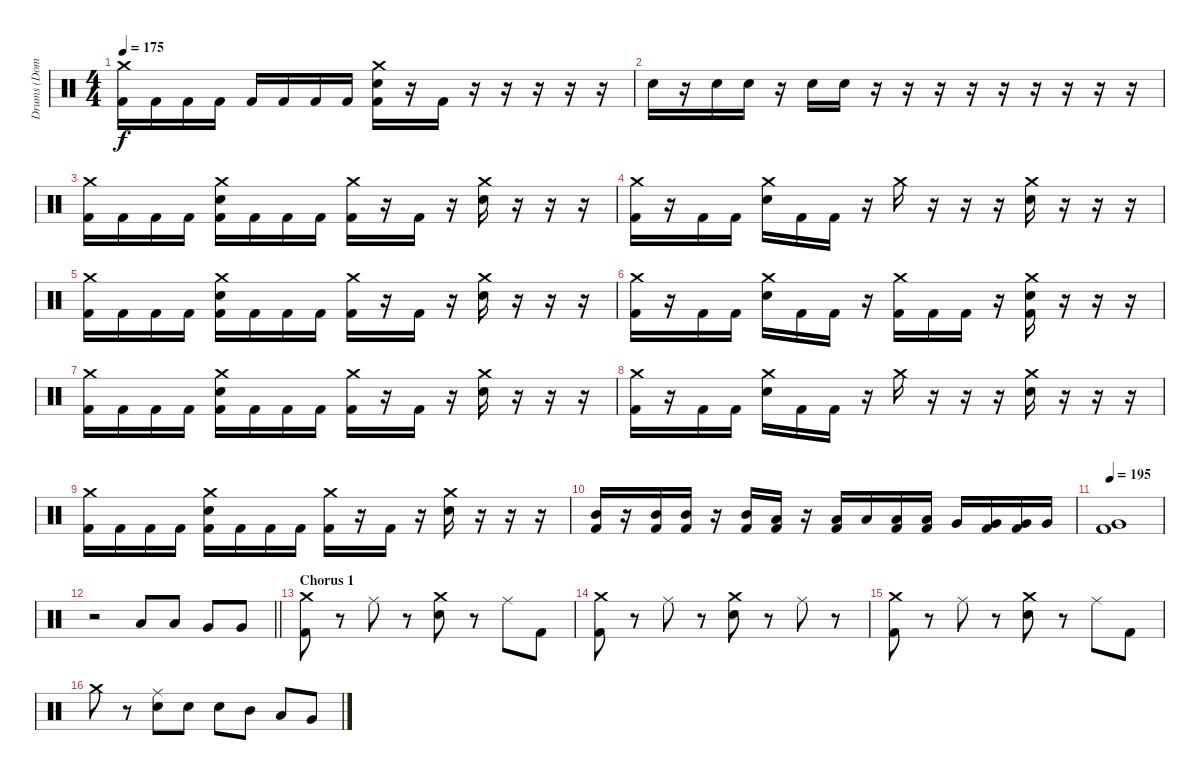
\track ("Drums (Dominik)" "Drums (Dom") {instrument percussion}
\staff {score}
\articulation defaults
\ts (4 4)
\tempo 175
\clef neutral
\ks c
("Crash medium (hit)" "Kick (hit) 2").16{dy f} "Kick (hit) 2".16 "Kick (hit) 2".16 "Kick (hit) 2".16 "Kick (hit) 2".16 "Kick (hit) 2".16 "Kick (hit) 2".16 "Kick (hit) 2".16 ("Crash medium (hit)" "Electric Snare (hit)" "Kick (hit) 2").16 r.16 "Kick (hit) 2".16 r.16 r.16 r.16 r.16 r.16 |
"Electric Snare (hit)".16 r.16 "Electric Snare (hit)".16 "Electric Snare (hit)".16 r.16 "Electric Snare (hit)".16 "Electric Snare (hit)".16 r.16 r.16 r.16 r.16 r.16 r.16 r.16 r.16 r.16 |
("Crash medium (hit)" "Kick (hit) 2").16 "Kick (hit) 2".16 "Kick (hit) 2".16 "Kick (hit) 2".16 ("Crash medium (hit)" "Electric Snare (hit)" "Kick (hit) 2").16 "Kick (hit) 2".16 "Kick (hit) 2".16 "Kick (hit) 2".16 ("Crash medium (hit)" "Kick (hit) 2").16 r.16 "Kick (hit) 2".16 r.16 ("Crash medium (hit)" "Electric Snare (hit)").16 r.16 r.16 r.16 |
("Crash medium (hit)" "Kick (hit) 2").16 r.16 "Kick (hit) 2".16 "Kick (hit) 2".16 ("Crash medium (hit)" "Electric Snare (hit)").16 "Kick (hit) 2".16 "Kick (hit) 2".16 r.16 "Crash medium (hit)".16 r.16 r.16 r.16 ("Crash medium (hit)" "Electric Snare (hit)").16 r.16 r.16 r.16 |
("Crash medium (hit)" "Kick (hit) 2").16 "Kick (hit) 2".16 "Kick (hit) 2".16 "Kick (hit) 2".16 ("Crash medium (hit)" "Electric Snare (hit)" "Kick (hit) 2").16 "Kick (hit) 2".16 "Kick (hit) 2".16 "Kick (hit) 2".16 ("Crash medium (hit)" "Kick (hit) 2").16 r.16 "Kick (hit) 2".16 r.16 ("Crash medium (hit)" "Electric Snare (hit)").16 r.16 r.16 r.16 |
("Crash medium (hit)" "Kick (hit) 2").16 r.16 "Kick (hit) 2".16 "Kick (hit) 2".16 ("Crash medium (hit)" "Electric Snare (hit)").16 "Kick (hit) 2".16 "Kick (hit) 2".16 r.16 ("Crash medium (hit)" "Kick (hit) 2").16 "Kick (hit) 2".16 "Kick (hit) 2".16 r.16 ("Crash medium (hit)" "Electric Snare (hit)" "Kick (hit) 2").16 r.16 r.16 r.16 |
("Crash medium (hit)" "Kick (hit) 2").16 "Kick (hit) 2".16 "Kick (hit) 2".16 "Kick (hit) 2".16 ("Crash medium (hit)" "Electric Snare (hit)" "Kick (hit) 2").16 "Kick (hit) 2".16 "Kick (hit) 2".16 "Kick (hit) 2".16 ("Crash medium (hit)" "Kick (hit) 2").16 r.16 "Kick (hit) 2".16 r.16 ("Crash medium (hit)" "Electric Snare (hit)").16 r.16 r.16 r.16 |
("Crash medium (hit)" "Kick (hit) 2").16 r.16 "Kick (hit) 2".16 "Kick (hit) 2".16 ("Crash medium (hit)" "Electric Snare (hit)").16 "Kick (hit) 2".16 "Kick (hit) 2".16 r.16 "Crash medium (hit)".16 r.16 r.16 r.16 ("Crash medium (hit)" "Electric Snare (hit)").16 r.16 r.16 r.16 |
("Crash medium (hit)" "Kick (hit) 2").16 "Kick (hit) 2".16 "Kick (hit) 2".16 "Kick (hit) 2".16 ("Crash medium (hit)" "Electric Snare (hit)" "Kick (hit) 2").16 "Kick (hit) 2".16 "Kick (hit) 2".16 "Kick (hit) 2".16 ("Crash medium (hit)" "Kick (hit) 2").16 r.16 "Kick (hit) 2".16 r.16 ("Crash medium (hit)" "Electric Snare (hit)").16 r.16 r.16 r.16 |
("Mid Tom (hit)" "Kick (hit) 2").16 r.16 ("Mid Tom (hit)" "Kick (hit) 2").16 ("Mid Tom (hit)" "Kick (hit) 2").16 r.16 ("Mid Tom (hit)" "Kick (hit) 2").16 ("Low Tom (hit)" "Kick (hit) 2").16 r.16 ("Low Tom (hit)" "Kick (hit) 2").16 "Low Tom (hit)".16 ("Low Tom (hit)" "Kick (hit) 2").16 ("Low Tom (hit)" "Kick (hit) 2").16 "Very Low Tom (hit)".16 ("Very Low Tom (hit)" "Kick (hit) 2").16 ("Very Low Tom (hit)" "Kick (hit) 2").16 "Very Low Tom (hit)".16 |
\tempo 195
("Very Low Tom (hit)" "Kick (hit) 2").1 |
\barLineRight lightlight
r.2 "Low Tom (hit)".8 "Low Tom (hit)".8 "Very Low Tom (hit)".8 "Very Low Tom (hit)".8 |
\section ("" "Chorus 1")
("Crash medium (hit)" "Kick (hit) 2").8 r.8 "Ride (middle)".8 r.8 ("Crash medium (hit)" "Electric Snare (hit)").8 r.8 "Ride (middle)".8 "Kick (hit) 2".8 |
("Crash medium (hit)" "Kick (hit) 2").8 r.8 "Ride (middle)".8 r.8 ("Crash medium (hit)" "Electric Snare (hit)").8 r.8 "Ride (middle)".8 r.8 |
("Crash medium (hit)" "Kick (hit) 2").8 r.8 "Ride (middle)".8 r.8 ("Crash medium (hit)" "Electric Snare (hit)").8 r.8 "Ride (middle)".8 "Kick (hit) 2".8 |
"Crash medium (hit)".8 r.8 ("Ride (middle)" "Electric Snare (hit)").8 "Electric Snare (hit)".8 "Electric Snare (hit)".8 "Mid Tom (hit)".8 "Low Tom (hit)".8 "Very Low Tom (hit)".8
